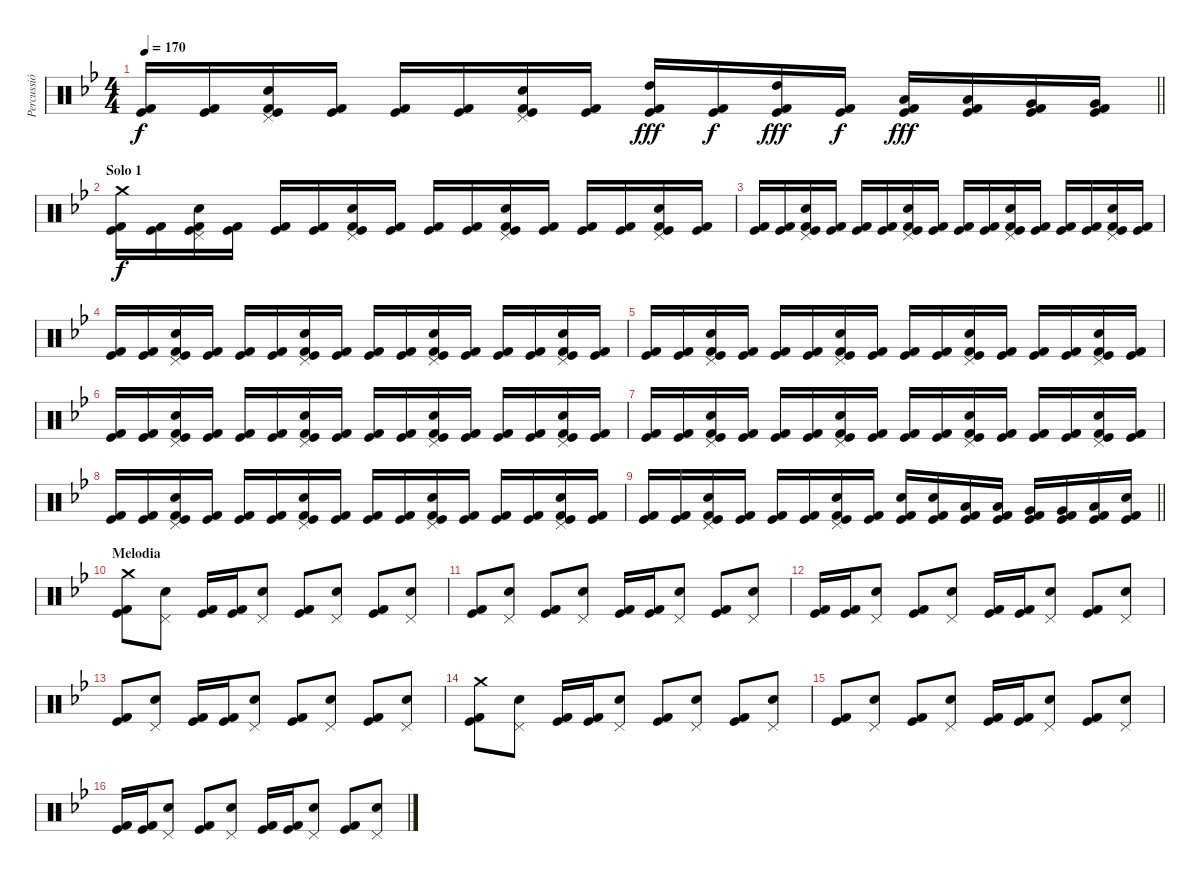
\track ("Percussió" "Percussió") {instrument percussion}
\staff {score}
\articulation defaults
\ts (4 4)
\tempo 170
\clef neutral
\barLineRight lightlight
\ks gminor
("Kick (hit)" "Kick (hit) 2").16{dy f} ("Kick (hit)" "Kick (hit) 2").16 ("Pedal Hi-Hat (hit)" "Electric Snare (hit)" "Kick (hit)" "Kick (hit) 2").16 ("Kick (hit)" "Kick (hit) 2").16 ("Kick (hit)" "Kick (hit) 2").16 ("Kick (hit)" "Kick (hit) 2").16 ("Pedal Hi-Hat (hit)" "Electric Snare (hit)" "Kick (hit)" "Kick (hit) 2").16 ("Kick (hit)" "Kick (hit) 2").16 ("High Tom (hit)" "Kick (hit)" "Kick (hit) 2").16{dy fff} ("Kick (hit)" "Kick (hit) 2").16{dy f} ("High Tom (hit)" "Kick (hit)" "Kick (hit) 2").16{dy fff} ("Kick (hit)" "Kick (hit) 2").16{dy f} ("Low Tom (hit)" "Kick (hit)" "Kick (hit) 2").16{dy fff} ("Low Tom (hit)" "Kick (hit)" "Kick (hit) 2").16 ("Very Low Tom (hit)" "Kick (hit)" "Kick (hit) 2").16 ("Very Low Tom (hit)" "Kick (hit)" "Kick (hit) 2").16 |
\section ("" "Solo 1")
("Crash medium (hit)" "Kick (hit)" "Kick (hit) 2").16{dy f} ("Kick (hit)" "Kick (hit) 2").16 ("Pedal Hi-Hat (hit)" "Electric Snare (hit)" "Kick (hit)" "Kick (hit) 2").16 ("Kick (hit)" "Kick (hit) 2").16 ("Kick (hit)" "Kick (hit) 2").16 ("Kick (hit)" "Kick (hit) 2").16 ("Pedal Hi-Hat (hit)" "Electric Snare (hit)" "Kick (hit)" "Kick (hit) 2").16 ("Kick (hit)" "Kick (hit) 2").16 ("Kick (hit)" "Kick (hit) 2").16 ("Kick (hit)" "Kick (hit) 2").16 ("Pedal Hi-Hat (hit)" "Electric Snare (hit)" "Kick (hit)" "Kick (hit) 2").16 ("Kick (hit)" "Kick (hit) 2").16 ("Kick (hit)" "Kick (hit) 2").16 ("Kick (hit)" "Kick (hit) 2").16 ("Pedal Hi-Hat (hit)" "Electric Snare (hit)" "Kick (hit)" "Kick (hit) 2").16 ("Kick (hit)" "Kick (hit) 2").16 |
("Kick (hit)" "Kick (hit) 2").16 ("Kick (hit)" "Kick (hit) 2").16 ("Pedal Hi-Hat (hit)" "Electric Snare (hit)" "Kick (hit)" "Kick (hit) 2").16 ("Kick (hit)" "Kick (hit) 2").16 ("Kick (hit)" "Kick (hit) 2").16 ("Kick (hit)" "Kick (hit) 2").16 ("Pedal Hi-Hat (hit)" "Electric Snare (hit)" "Kick (hit)" "Kick (hit) 2").16 ("Kick (hit)" "Kick (hit) 2").16 ("Kick (hit)" "Kick (hit) 2").16 ("Kick (hit)" "Kick (hit) 2").16 ("Pedal Hi-Hat (hit)" "Electric Snare (hit)" "Kick (hit)" "Kick (hit) 2").16 ("Kick (hit)" "Kick (hit) 2").16 ("Kick (hit)" "Kick (hit) 2").16 ("Kick (hit)" "Kick (hit) 2").16 ("Pedal Hi-Hat (hit)" "Electric Snare (hit)" "Kick (hit)" "Kick (hit) 2").16 ("Kick (hit)" "Kick (hit) 2").16 |
("Kick (hit)" "Kick (hit) 2").16 ("Kick (hit)" "Kick (hit) 2").16 ("Pedal Hi-Hat (hit)" "Electric Snare (hit)" "Kick (hit)" "Kick (hit) 2").16 ("Kick (hit)" "Kick (hit) 2").16 ("Kick (hit)" "Kick (hit) 2").16 ("Kick (hit)" "Kick (hit) 2").16 ("Pedal Hi-Hat (hit)" "Electric Snare (hit)" "Kick (hit)" "Kick (hit) 2").16 ("Kick (hit)" "Kick (hit) 2").16 ("Kick (hit)" "Kick (hit) 2").16 ("Kick (hit)" "Kick (hit) 2").16 ("Pedal Hi-Hat (hit)" "Electric Snare (hit)" "Kick (hit)" "Kick (hit) 2").16 ("Kick (hit)" "Kick (hit) 2").16 ("Kick (hit)" "Kick (hit) 2").16 ("Kick (hit)" "Kick (hit) 2").16 ("Pedal Hi-Hat (hit)" "Electric Snare (hit)" "Kick (hit)" "Kick (hit) 2").16 ("Kick (hit)" "Kick (hit) 2").16 |
("Kick (hit)" "Kick (hit) 2").16 ("Kick (hit)" "Kick (hit) 2").16 ("Pedal Hi-Hat (hit)" "Electric Snare (hit)" "Kick (hit)" "Kick (hit) 2").16 ("Kick (hit)" "Kick (hit) 2").16 ("Kick (hit)" "Kick (hit) 2").16 ("Kick (hit)" "Kick (hit) 2").16 ("Pedal Hi-Hat (hit)" "Electric Snare (hit)" "Kick (hit)" "Kick (hit) 2").16 ("Kick (hit)" "Kick (hit) 2").16 ("Kick (hit)" "Kick (hit) 2").16 ("Kick (hit)" "Kick (hit) 2").16 ("Pedal Hi-Hat (hit)" "Electric Snare (hit)" "Kick (hit)" "Kick (hit) 2").16 ("Kick (hit)" "Kick (hit) 2").16 ("Kick (hit)" "Kick (hit) 2").16 ("Kick (hit)" "Kick (hit) 2").16 ("Pedal Hi-Hat (hit)" "Electric Snare (hit)" "Kick (hit)" "Kick (hit) 2").16 ("Kick (hit)" "Kick (hit) 2").16 |
("Kick (hit)" "Kick (hit) 2").16 ("Kick (hit)" "Kick (hit) 2").16 ("Pedal Hi-Hat (hit)" "Electric Snare (hit)" "Kick (hit)" "Kick (hit) 2").16 ("Kick (hit)" "Kick (hit) 2").16 ("Kick (hit)" "Kick (hit) 2").16 ("Kick (hit)" "Kick (hit) 2").16 ("Pedal Hi-Hat (hit)" "Electric Snare (hit)" "Kick (hit)" "Kick (hit) 2").16 ("Kick (hit)" "Kick (hit) 2").16 ("Kick (hit)" "Kick (hit) 2").16 ("Kick (hit)" "Kick (hit) 2").16 ("Pedal Hi-Hat (hit)" "Electric Snare (hit)" "Kick (hit)" "Kick (hit) 2").16 ("Kick (hit)" "Kick (hit) 2").16 ("Kick (hit)" "Kick (hit) 2").16 ("Kick (hit)" "Kick (hit) 2").16 ("Pedal Hi-Hat (hit)" "Electric Snare (hit)" "Kick (hit)" "Kick (hit) 2").16 ("Kick (hit)" "Kick (hit) 2").16 |
("Kick (hit)" "Kick (hit) 2").16 ("Kick (hit)" "Kick (hit) 2").16 ("Pedal Hi-Hat (hit)" "Electric Snare (hit)" "Kick (hit)" "Kick (hit) 2").16 ("Kick (hit)" "Kick (hit) 2").16 ("Kick (hit)" "Kick (hit) 2").16 ("Kick (hit)" "Kick (hit) 2").16 ("Pedal Hi-Hat (hit)" "Electric Snare (hit)" "Kick (hit)" "Kick (hit) 2").16 ("Kick (hit)" "Kick (hit) 2").16 ("Kick (hit)" "Kick (hit) 2").16 ("Kick (hit)" "Kick (hit) 2").16 ("Pedal Hi-Hat (hit)" "Electric Snare (hit)" "Kick (hit)" "Kick (hit) 2").16 ("Kick (hit)" "Kick (hit) 2").16 ("Kick (hit)" "Kick (hit) 2").16 ("Kick (hit)" "Kick (hit) 2").16 ("Pedal Hi-Hat (hit)" "Electric Snare (hit)" "Kick (hit)" "Kick (hit) 2").16 ("Kick (hit)" "Kick (hit) 2").16 |
("Kick (hit)" "Kick (hit) 2").16 ("Kick (hit)" "Kick (hit) 2").16 ("Pedal Hi-Hat (hit)" "Electric Snare (hit)" "Kick (hit)" "Kick (hit) 2").16 ("Kick (hit)" "Kick (hit) 2").16 ("Kick (hit)" "Kick (hit) 2").16 ("Kick (hit)" "Kick (hit) 2").16 ("Pedal Hi-Hat (hit)" "Electric Snare (hit)" "Kick (hit)" "Kick (hit) 2").16 ("Kick (hit)" "Kick (hit) 2").16 ("Kick (hit)" "Kick (hit) 2").16 ("Kick (hit)" "Kick (hit) 2").16 ("Pedal Hi-Hat (hit)" "Electric Snare (hit)" "Kick (hit)" "Kick (hit) 2").16 ("Kick (hit)" "Kick (hit) 2").16 ("Kick (hit)" "Kick (hit) 2").16 ("Kick (hit)" "Kick (hit) 2").16 ("Pedal Hi-Hat (hit)" "Electric Snare (hit)" "Kick (hit)" "Kick (hit) 2").16 ("Kick (hit)" "Kick (hit) 2").16 |
\barLineRight lightlight
("Kick (hit)" "Kick (hit) 2").16 ("Kick (hit)" "Kick (hit) 2").16 ("Pedal Hi-Hat (hit)" "Electric Snare (hit)" "Kick (hit)" "Kick (hit) 2").16 ("Kick (hit)" "Kick (hit) 2").16 ("Kick (hit)" "Kick (hit) 2").16 ("Kick (hit)" "Kick (hit) 2").16 ("Pedal Hi-Hat (hit)" "Electric Snare (hit)" "Kick (hit)" "Kick (hit) 2").16 ("Kick (hit)" "Kick (hit) 2").16 ("Electric Snare (hit)" "Kick (hit)" "Kick (hit) 2").16 ("Electric Snare (hit)" "Kick (hit)" "Kick (hit) 2").16 ("Low Tom (hit)" "Kick (hit)" "Kick (hit) 2").16 ("Low Tom (hit)" "Kick (hit)" "Kick (hit) 2").16 ("Very Low Tom (hit)" "Kick (hit)" "Kick (hit) 2").16 ("Very Low Tom (hit)" "Kick (hit)" "Kick (hit) 2").16 ("Low Tom (hit)" "Kick (hit)" "Kick (hit) 2").16 ("Electric Snare (hit)" "Kick (hit)" "Kick (hit) 2").16 |
\section ("" "Melodia")
("Crash medium (hit)" "Kick (hit)" "Kick (hit) 2").8 ("Pedal Hi-Hat (hit)" "Electric Snare (hit)").8 ("Kick (hit)" "Kick (hit) 2").16 ("Kick (hit)" "Kick (hit) 2").16 ("Pedal Hi-Hat (hit)" "Electric Snare (hit)").8 ("Kick (hit)" "Kick (hit) 2").8 ("Pedal Hi-Hat (hit)" "Electric Snare (hit)").8 ("Kick (hit)" "Kick (hit) 2").8 ("Pedal Hi-Hat (hit)" "Electric Snare (hit)").8 |
("Kick (hit)" "Kick (hit) 2").8 ("Pedal Hi-Hat (hit)" "Electric Snare (hit)").8 ("Kick (hit)" "Kick (hit) 2").8 ("Pedal Hi-Hat (hit)" "Electric Snare (hit)").8 ("Kick (hit)" "Kick (hit) 2").16 ("Kick (hit)" "Kick (hit) 2").16 ("Pedal Hi-Hat (hit)" "Electric Snare (hit)").8 ("Kick (hit)" "Kick (hit) 2").8 ("Pedal Hi-Hat (hit)" "Electric Snare (hit)").8 |
("Kick (hit)" "Kick (hit) 2").16 ("Kick (hit)" "Kick (hit) 2").16 ("Pedal Hi-Hat (hit)" "Electric Snare (hit)").8 ("Kick (hit)" "Kick (hit) 2").8 ("Pedal Hi-Hat (hit)" "Electric Snare (hit)").8 ("Kick (hit)" "Kick (hit) 2").16 ("Kick (hit)" "Kick (hit) 2").16 ("Pedal Hi-Hat (hit)" "Electric Snare (hit)").8 ("Kick (hit)" "Kick (hit) 2").8 ("Pedal Hi-Hat (hit)" "Electric Snare (hit)").8 |
("Kick (hit)" "Kick (hit) 2").8 ("Pedal Hi-Hat (hit)" "Electric Snare (hit)").8 ("Kick (hit)" "Kick (hit) 2").16 ("Kick (hit)" "Kick (hit) 2").16 ("Pedal Hi-Hat (hit)" "Electric Snare (hit)").8 ("Kick (hit)" "Kick (hit) 2").8 ("Pedal Hi-Hat (hit)" "Electric Snare (hit)").8 ("Kick (hit)" "Kick (hit) 2").8 ("Pedal Hi-Hat (hit)" "Electric Snare (hit)").8 |
("Crash medium (hit)" "Kick (hit)" "Kick (hit) 2").8 ("Pedal Hi-Hat (hit)" "Electric Snare (hit)").8 ("Kick (hit)" "Kick (hit) 2").16 ("Kick (hit)" "Kick (hit) 2").16 ("Pedal Hi-Hat (hit)" "Electric Snare (hit)").8 ("Kick (hit)" "Kick (hit) 2").8 ("Pedal Hi-Hat (hit)" "Electric Snare (hit)").8 ("Kick (hit)" "Kick (hit) 2").8 ("Pedal Hi-Hat (hit)" "Electric Snare (hit)").8 |
("Kick (hit)" "Kick (hit) 2").8 ("Pedal Hi-Hat (hit)" "Electric Snare (hit)").8 ("Kick (hit)" "Kick (hit) 2").8 ("Pedal Hi-Hat (hit)" "Electric Snare (hit)").8 ("Kick (hit)" "Kick (hit) 2").16 ("Kick (hit)" "Kick (hit) 2").16 ("Pedal Hi-Hat (hit)" "Electric Snare (hit)").8 ("Kick (hit)" "Kick (hit) 2").8 ("Pedal Hi-Hat (hit)" "Electric Snare (hit)").8 |
("Kick (hit)" "Kick (hit) 2").16 ("Kick (hit)" "Kick (hit) 2").16 ("Pedal Hi-Hat (hit)" "Electric Snare (hit)").8 ("Kick (hit)" "Kick (hit) 2").8 ("Pedal Hi-Hat (hit)" "Electric Snare (hit)").8 ("Kick (hit)" "Kick (hit) 2").16 ("Kick (hit)" "Kick (hit) 2").16 ("Pedal Hi-Hat (hit)" "Electric Snare (hit)").8 ("Kick (hit)" "Kick (hit) 2").8 ("Pedal Hi-Hat (hit)" "Electric Snare (hit)").8
